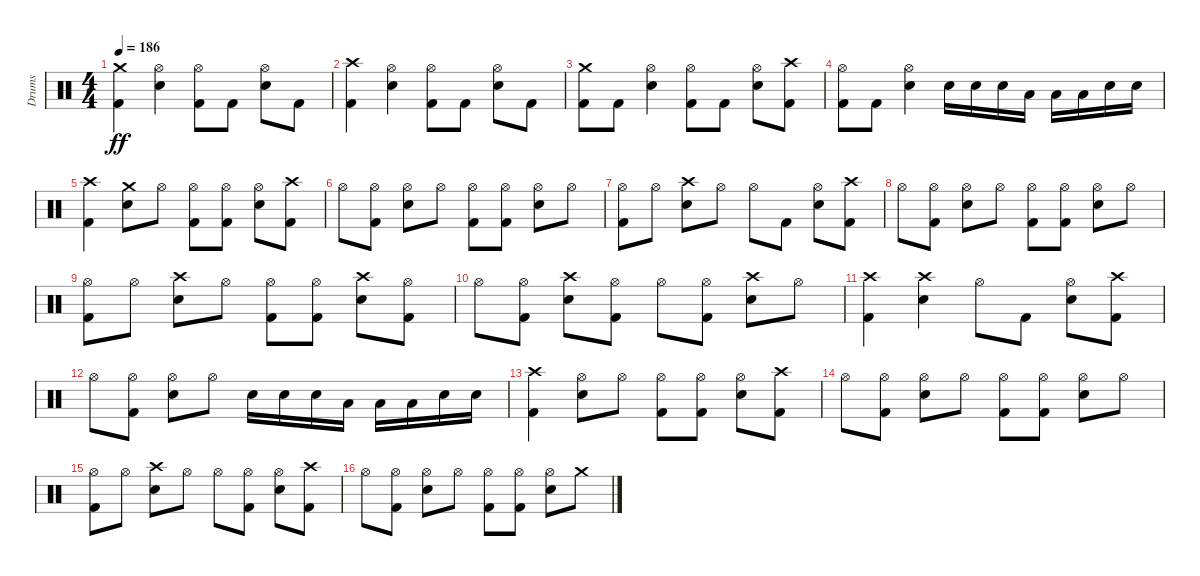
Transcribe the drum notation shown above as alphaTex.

\track ("Drums" "Drums") {instrument percussion}
\staff {score}
\articulation defaults
\ts (4 4)
\tempo 186
\clef neutral
\ks c
("Kick (hit) 2" "Crash medium (hit)").4{dy ff} ("Snare (hit) 2" "Hi-Hat (open)").4 ("Kick (hit) 2" "Hi-Hat (open)").8 "Kick (hit) 2".8 ("Snare (hit) 2" "Hi-Hat (open)").8 "Kick (hit) 2".8 |
("Kick (hit) 2" "Crash high (hit)").4 ("Snare (hit) 2" "Hi-Hat (open)").4 ("Kick (hit) 2" "Hi-Hat (open)").8 "Kick (hit) 2".8 ("Snare (hit) 2" "Hi-Hat (open)").8 "Kick (hit) 2".8 |
("Kick (hit) 2" "Crash medium (hit)").8 "Kick (hit) 2".8 ("Snare (hit) 2" "Hi-Hat (open)").4 ("Kick (hit) 2" "Hi-Hat (open)").8 "Kick (hit) 2".8 ("Snare (hit) 2" "Hi-Hat (open)").8 ("Kick (hit) 2" "Crash high (hit)").8 |
("Kick (hit) 2" "Hi-Hat (open)").8 "Kick (hit) 2".8 ("Snare (hit) 2" "Hi-Hat (open)").4 "Snare (hit) 2".16 "Snare (hit) 2".16 "Snare (hit) 2".16 "Low Tom (hit)".16 "Low Tom (hit)".16 "Low Tom (hit)".16 "Snare (hit) 2".16 "Snare (hit) 2".16 |
("Kick (hit) 2" "Crash high (hit)").4 ("Snare (hit) 2" "Crash medium (hit)").8 "Hi-Hat (open)".8 ("Kick (hit) 2" "Hi-Hat (open)").8 ("Kick (hit) 2" "Hi-Hat (open)").8 ("Snare (hit) 2" "Hi-Hat (open)").8 ("Kick (hit) 2" "Crash high (hit)").8 |
"Hi-Hat (open)".8 ("Kick (hit) 2" "Hi-Hat (open)").8 ("Snare (hit) 2" "Hi-Hat (open)").8 "Hi-Hat (open)".8 ("Kick (hit) 2" "Hi-Hat (open)").8 ("Kick (hit) 2" "Hi-Hat (open)").8 ("Snare (hit) 2" "Hi-Hat (open)").8 "Hi-Hat (open)".8 |
("Kick (hit) 2" "Hi-Hat (open)").8 "Hi-Hat (open)".8 ("Snare (hit) 2" "Crash high (hit)").8 "Hi-Hat (open)".8 "Hi-Hat (open)".8 "Kick (hit) 2".8 ("Snare (hit) 2" "Hi-Hat (open)").8 ("Kick (hit) 2" "Crash high (hit)").8 |
"Hi-Hat (open)".8 ("Kick (hit) 2" "Hi-Hat (open)").8 ("Snare (hit) 2" "Hi-Hat (open)").8 "Hi-Hat (open)".8 ("Kick (hit) 2" "Hi-Hat (open)").8 ("Kick (hit) 2" "Hi-Hat (open)").8 ("Snare (hit) 2" "Hi-Hat (open)").8 "Hi-Hat (open)".8 |
("Kick (hit) 2" "Hi-Hat (open)").8 "Hi-Hat (open)".8 ("Snare (hit) 2" "Crash high (hit)").8 "Hi-Hat (open)".8 ("Kick (hit) 2" "Hi-Hat (open)").8 ("Kick (hit) 2" "Hi-Hat (open)").8 ("Snare (hit) 2" "Crash high (hit)").8 ("Kick (hit) 2" "Hi-Hat (open)").8 |
"Hi-Hat (open)".8 ("Kick (hit) 2" "Hi-Hat (open)").8 ("Snare (hit) 2" "Crash high (hit)").8 ("Kick (hit) 2" "Hi-Hat (open)").8 "Hi-Hat (open)".8 ("Kick (hit) 2" "Hi-Hat (open)").8 ("Snare (hit) 2" "Crash high (hit)").8 "Hi-Hat (open)".8 |
("Kick (hit) 2" "Crash high (hit)").4 ("Snare (hit) 2" "Crash high (hit)").4 "Hi-Hat (open)".8 "Kick (hit) 2".8 ("Snare (hit) 2" "Hi-Hat (open)").8 ("Kick (hit) 2" "Crash high (hit)").8 |
"Hi-Hat (open)".8 ("Kick (hit) 2" "Hi-Hat (open)").8 ("Snare (hit) 2" "Hi-Hat (open)").8 "Hi-Hat (open)".8 "Snare (hit) 2".16 "Snare (hit) 2".16 "Snare (hit) 2".16 "Low Tom (hit)".16 "Low Tom (hit)".16 "Low Tom (hit)".16 "Snare (hit) 2".16 "Snare (hit) 2".16 |
("Kick (hit) 2" "Crash high (hit)").4 ("Snare (hit) 2" "Hi-Hat (open)").8 "Hi-Hat (open)".8 ("Kick (hit) 2" "Hi-Hat (open)").8 ("Kick (hit) 2" "Hi-Hat (open)").8 ("Snare (hit) 2" "Hi-Hat (open)").8 ("Kick (hit) 2" "Crash high (hit)").8 |
"Hi-Hat (open)".8 ("Kick (hit) 2" "Hi-Hat (open)").8 ("Snare (hit) 2" "Hi-Hat (open)").8 "Hi-Hat (open)".8 ("Kick (hit) 2" "Hi-Hat (open)").8 ("Kick (hit) 2" "Hi-Hat (open)").8 ("Snare (hit) 2" "Hi-Hat (open)").8 "Hi-Hat (open)".8 |
("Kick (hit) 2" "Hi-Hat (open)").8 "Hi-Hat (open)".8 ("Snare (hit) 2" "Crash high (hit)").8 "Hi-Hat (open)".8 "Hi-Hat (open)".8 ("Kick (hit) 2" "Hi-Hat (open)").8 ("Snare (hit) 2" "Hi-Hat (open)").8 ("Kick (hit) 2" "Crash high (hit)").8 |
"Hi-Hat (open)".8 ("Kick (hit) 2" "Hi-Hat (open)").8 ("Snare (hit) 2" "Hi-Hat (open)").8 "Hi-Hat (open)".8 ("Kick (hit) 2" "Hi-Hat (open)").8 ("Kick (hit) 2" "Hi-Hat (open)").8 ("Snare (hit) 2" "Hi-Hat (open)").8 "Crash medium (hit)".8
